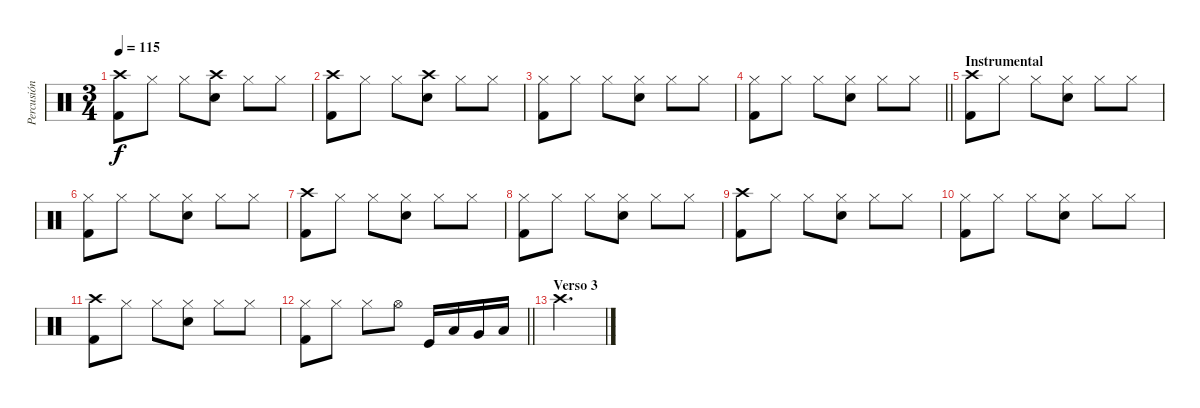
\track ("Percusión" "Percusión") {instrument percussion}
\staff {score}
\articulation defaults
\ts (3 4)
\tempo 115
\clef neutral
\ks c
("Crash high (hit)" "Kick (hit) 2").8{dy f} "Hi-Hat (closed)".8 "Hi-Hat (closed)".8 ("Crash high (hit)" "Electric Snare (hit)").8 "Hi-Hat (closed)".8 "Hi-Hat (closed)".8 |
("Crash high (hit)" "Kick (hit) 2").8 "Hi-Hat (closed)".8 "Hi-Hat (closed)".8 ("Crash high (hit)" "Electric Snare (hit)").8 "Hi-Hat (closed)".8 "Hi-Hat (closed)".8 |
("Hi-Hat (closed)" "Kick (hit) 2").8 "Hi-Hat (closed)".8 "Hi-Hat (closed)".8 ("Hi-Hat (closed)" "Electric Snare (hit)").8 "Hi-Hat (closed)".8 "Hi-Hat (closed)".8 |
\barLineRight lightlight
("Hi-Hat (closed)" "Kick (hit) 2").8 "Hi-Hat (closed)".8 "Hi-Hat (closed)".8 ("Hi-Hat (closed)" "Electric Snare (hit)").8 "Hi-Hat (closed)".8 "Hi-Hat (closed)".8 |
\section ("" "Instrumental")
("Crash high (hit)" "Kick (hit) 2").8 "Hi-Hat (closed)".8 "Hi-Hat (closed)".8 ("Hi-Hat (closed)" "Electric Snare (hit)").8 "Hi-Hat (closed)".8 "Hi-Hat (closed)".8 |
("Hi-Hat (closed)" "Kick (hit) 2").8 "Hi-Hat (closed)".8 "Hi-Hat (closed)".8 ("Hi-Hat (closed)" "Electric Snare (hit)").8 "Hi-Hat (closed)".8 "Hi-Hat (closed)".8 |
("Crash high (hit)" "Kick (hit) 2").8 "Hi-Hat (closed)".8 "Hi-Hat (closed)".8 ("Hi-Hat (closed)" "Electric Snare (hit)").8 "Hi-Hat (closed)".8 "Hi-Hat (closed)".8 |
("Hi-Hat (closed)" "Kick (hit) 2").8 "Hi-Hat (closed)".8 "Hi-Hat (closed)".8 ("Hi-Hat (closed)" "Electric Snare (hit)").8 "Hi-Hat (closed)".8 "Hi-Hat (closed)".8 |
("Crash high (hit)" "Kick (hit) 2").8 "Hi-Hat (closed)".8 "Hi-Hat (closed)".8 ("Hi-Hat (closed)" "Electric Snare (hit)").8 "Hi-Hat (closed)".8 "Hi-Hat (closed)".8 |
("Hi-Hat (closed)" "Kick (hit) 2").8 "Hi-Hat (closed)".8 "Hi-Hat (closed)".8 ("Hi-Hat (closed)" "Electric Snare (hit)").8 "Hi-Hat (closed)".8 "Hi-Hat (closed)".8 |
("Crash high (hit)" "Kick (hit) 2").8 "Hi-Hat (closed)".8 "Hi-Hat (closed)".8 ("Hi-Hat (closed)" "Electric Snare (hit)").8 "Hi-Hat (closed)".8 "Hi-Hat (closed)".8 |
\barLineRight lightlight
("Hi-Hat (closed)" "Kick (hit) 2").8 "Hi-Hat (closed)".8 "Hi-Hat (closed)".8 "Hi-Hat (open)".8 "Kick (hit)".16 "Low Floor Tom (hit)".16 "Very Low Tom (hit)".16 "Low Tom (hit)".16 |
\section ("" "Verso 3")
"Crash high (hit)".2{d}
